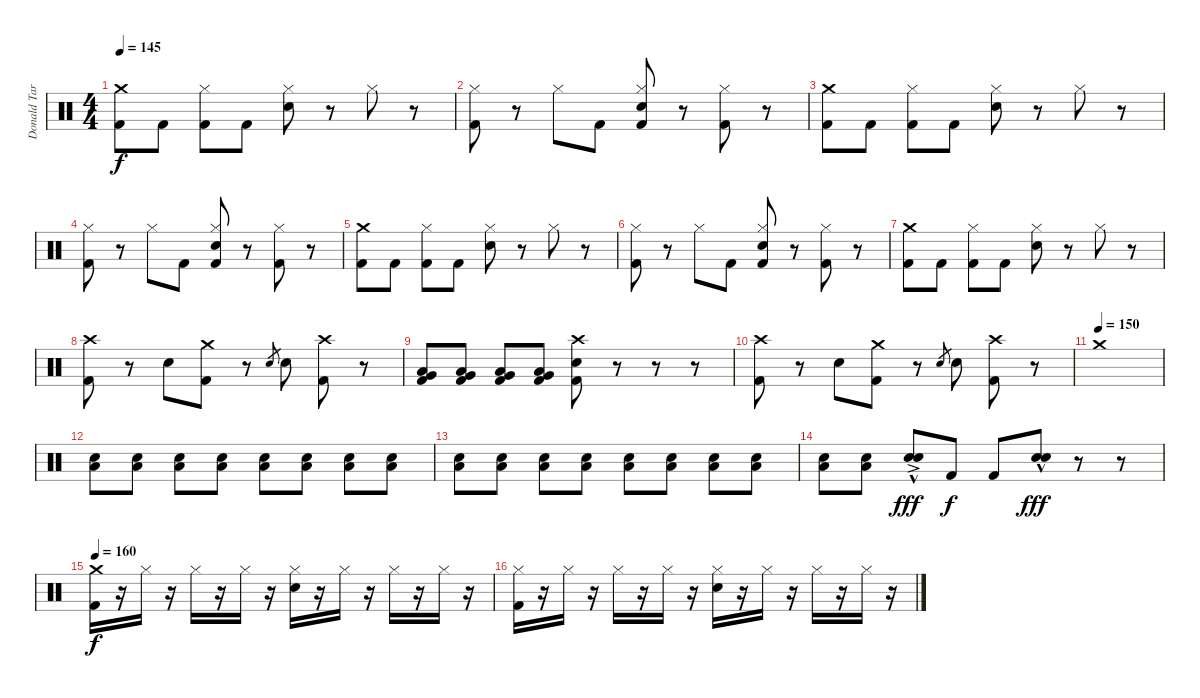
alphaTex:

\track ("Donald Tardy" "Donald Tar") {instrument percussion}
\staff {score}
\articulation defaults
\ts (4 4)
\tempo 145
\clef neutral
\ks c
("Crash medium (hit)" "Kick (hit) 2").8{dy f} "Kick (hit) 2".8 ("Hi-Hat (closed)" "Kick (hit) 2").8 "Kick (hit) 2".8 ("Hi-Hat (closed)" "Electric Snare (hit)").8 r.8 "Hi-Hat (closed)".8 r.8 |
("Hi-Hat (closed)" "Kick (hit) 2").8 r.8 "Hi-Hat (closed)".8 "Kick (hit) 2".8 ("Hi-Hat (closed)" "Electric Snare (hit)" "Kick (hit) 2").8 r.8 ("Hi-Hat (closed)" "Kick (hit) 2").8 r.8 |
("Crash medium (hit)" "Kick (hit) 2").8 "Kick (hit) 2".8 ("Hi-Hat (closed)" "Kick (hit) 2").8 "Kick (hit) 2".8 ("Hi-Hat (closed)" "Electric Snare (hit)").8 r.8 "Hi-Hat (closed)".8 r.8 |
("Hi-Hat (closed)" "Kick (hit) 2").8 r.8 "Hi-Hat (closed)".8 "Kick (hit) 2".8 ("Hi-Hat (closed)" "Electric Snare (hit)" "Kick (hit) 2").8 r.8 ("Hi-Hat (closed)" "Kick (hit) 2").8 r.8 |
("Crash medium (hit)" "Kick (hit) 2").8 "Kick (hit) 2".8 ("Hi-Hat (closed)" "Kick (hit) 2").8 "Kick (hit) 2".8 ("Hi-Hat (closed)" "Electric Snare (hit)").8 r.8 "Hi-Hat (closed)".8 r.8 |
("Hi-Hat (closed)" "Kick (hit) 2").8 r.8 "Hi-Hat (closed)".8 "Kick (hit) 2".8 ("Hi-Hat (closed)" "Electric Snare (hit)" "Kick (hit) 2").8 r.8 ("Hi-Hat (closed)" "Kick (hit) 2").8 r.8 |
("Crash medium (hit)" "Kick (hit) 2").8 "Kick (hit) 2".8 ("Hi-Hat (closed)" "Kick (hit) 2").8 "Kick (hit) 2".8 ("Hi-Hat (closed)" "Electric Snare (hit)").8 r.8 "Hi-Hat (closed)".8 r.8 |
("Crash high (hit)" "Kick (hit) 2").8 r.8 "Electric Snare (hit)".8 ("Crash medium (hit)" "Kick (hit) 2").8 r.8 "Electric Snare (hit)".8{gr} "Electric Snare (hit)".8 ("Crash high (hit)" "Kick (hit) 2").8 r.8 |
("Very Low Tom (hit)" "Low Floor Tom (hit)" "Kick (hit) 2").8 ("Very Low Tom (hit)" "Low Floor Tom (hit)" "Kick (hit) 2").8 ("Very Low Tom (hit)" "Low Floor Tom (hit)" "Kick (hit) 2").8 ("Very Low Tom (hit)" "Low Floor Tom (hit)" "Kick (hit) 2").8 ("Crash high (hit)" "Electric Snare (hit)" "Kick (hit) 2").8 r.8 r.8 r.8 |
("Crash high (hit)" "Kick (hit) 2").8 r.8 "Electric Snare (hit)".8 ("Crash medium (hit)" "Kick (hit) 2").8 r.8 "Electric Snare (hit)".8{gr} "Electric Snare (hit)".8 ("Crash high (hit)" "Kick (hit) 2").8 r.8 |
\tempo (150)
"Crash medium (hit)".1 |
("Electric Snare (hit)" "Low Floor Tom (hit)").8{volume 0} ("Electric Snare (hit)" "Low Floor Tom (hit)").8{volume 14} ("Electric Snare (hit)" "Low Floor Tom (hit)").8 ("Electric Snare (hit)" "Low Floor Tom (hit)").8 ("Electric Snare (hit)" "Low Floor Tom (hit)").8 ("Electric Snare (hit)" "Low Floor Tom (hit)").8 ("Electric Snare (hit)" "Low Floor Tom (hit)").8 ("Electric Snare (hit)" "Low Floor Tom (hit)").8 |
("Electric Snare (hit)" "Low Floor Tom (hit)").8 ("Electric Snare (hit)" "Low Floor Tom (hit)").8 ("Electric Snare (hit)" "Low Floor Tom (hit)").8 ("Electric Snare (hit)" "Low Floor Tom (hit)").8 ("Electric Snare (hit)" "Low Floor Tom (hit)").8 ("Electric Snare (hit)" "Low Floor Tom (hit)").8 ("Electric Snare (hit)" "Low Floor Tom (hit)").8 ("Electric Snare (hit)" "Low Floor Tom (hit)").8 |
("Electric Snare (hit)" "Low Floor Tom (hit)").8 ("Electric Snare (hit)" "Low Floor Tom (hit)").8 ("Electric Snare (hit)"{ac} "Electric Snare (hit)"{hac}).8{dy fff} "Kick (hit) 2".8{dy f} "Kick (hit) 2".8 ("Electric Snare (hit)"{hac} "Electric Snare (hit)"{hac}).8{dy fff} r.8 r.8 |
\tempo 160
("Crash medium (hit)" "Kick (hit) 2").16{dy f} r.16 "Hi-Hat (closed)".16 r.16 "Hi-Hat (closed)".16 r.16 "Hi-Hat (closed)".16 r.16 ("Hi-Hat (closed)" "Electric Snare (hit)").16 r.16 "Hi-Hat (closed)".16 r.16 "Hi-Hat (closed)".16 r.16 "Hi-Hat (closed)".16 r.16 |
("Hi-Hat (closed)" "Kick (hit) 2").16 r.16 "Hi-Hat (closed)".16 r.16 "Hi-Hat (closed)".16 r.16 "Hi-Hat (closed)".16 r.16 ("Hi-Hat (closed)" "Electric Snare (hit)").16 r.16 "Hi-Hat (closed)".16 r.16 "Hi-Hat (closed)".16 r.16 "Hi-Hat (closed)".16 r.16
